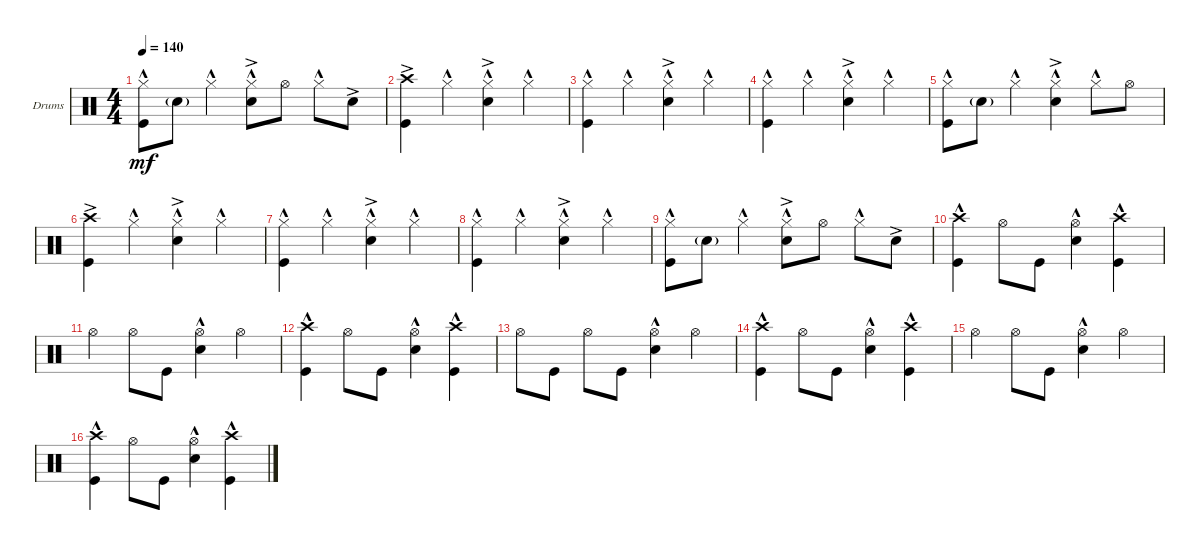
\bracketExtendMode groupsimilarinstruments
\firstSystemTrackNameOrientation horizontal
\otherSystemsTrackNameOrientation horizontal
\track ("Drumkit" "Drums") {instrument percussion}
\staff {score}
\articulation defaults
\ts (4 4)
\tempo 140
\clef neutral
\ks c
("Kick (hit)" "Hi-Hat (closed)"{hac}).8{dy mf} "Snare (hit) 2"{g}.8 "Hi-Hat (closed)"{hac}.4 ("Hi-Hat (closed)"{hac} "Snare (hit) 2"{ac}).8 "Hi-Hat (open)".8 "Hi-Hat (closed)"{hac}.8 "Snare (hit) 2"{ac}.8 |
("Kick (hit)" "Crash high (hit)"{ac}).4 "Hi-Hat (closed)"{hac}.4 ("Hi-Hat (closed)"{hac} "Snare (hit) 2"{ac}).4 "Hi-Hat (closed)"{hac}.4 |
("Kick (hit)" "Hi-Hat (closed)"{hac}).4 "Hi-Hat (closed)"{hac}.4 ("Hi-Hat (closed)"{hac} "Snare (hit) 2"{ac}).4 "Hi-Hat (closed)"{hac}.4 |
("Kick (hit)" "Hi-Hat (closed)"{hac}).4 "Hi-Hat (closed)"{hac}.4 ("Hi-Hat (closed)"{hac} "Snare (hit) 2"{ac}).4 "Hi-Hat (closed)"{hac}.4 |
("Kick (hit)" "Hi-Hat (closed)"{hac}).8 "Snare (hit) 2"{g}.8 "Hi-Hat (closed)"{hac}.4 ("Hi-Hat (closed)"{hac} "Snare (hit) 2"{ac}).4 "Hi-Hat (closed)"{hac}.8 "Hi-Hat (open)".8 |
("Kick (hit)" "Crash high (hit)"{ac}).4 "Hi-Hat (closed)"{hac}.4 ("Hi-Hat (closed)"{hac} "Snare (hit) 2"{ac}).4 "Hi-Hat (closed)"{hac}.4 |
("Kick (hit)" "Hi-Hat (closed)"{hac}).4 "Hi-Hat (closed)"{hac}.4 ("Hi-Hat (closed)"{hac} "Snare (hit) 2"{ac}).4 "Hi-Hat (closed)"{hac}.4 |
("Kick (hit)" "Hi-Hat (closed)"{hac}).4 "Hi-Hat (closed)"{hac}.4 ("Hi-Hat (closed)"{hac} "Snare (hit) 2"{ac}).4 "Hi-Hat (closed)"{hac}.4 |
("Kick (hit)" "Hi-Hat (closed)"{hac}).8 "Snare (hit) 2"{g}.8 "Hi-Hat (closed)"{hac}.4 ("Hi-Hat (closed)"{hac} "Snare (hit) 2"{ac}).8 "Hi-Hat (open)".8 "Hi-Hat (closed)"{hac}.8 "Snare (hit) 2"{ac}.8 |
("Kick (hit)" "Crash high (hit)"{hac}).4 "Hi-Hat (open)".8 "Kick (hit)".8 ("Hi-Hat (open)" "Snare (hit) 2"{hac}).4 ("Kick (hit)" "Crash high (hit)"{hac}).4 |
"Hi-Hat (open)".4 "Hi-Hat (open)".8 "Kick (hit)".8 ("Hi-Hat (open)" "Snare (hit) 2"{hac}).4 "Hi-Hat (open)".4 |
("Kick (hit)" "Crash high (hit)"{hac}).4 "Hi-Hat (open)".8 "Kick (hit)".8 ("Hi-Hat (open)" "Snare (hit) 2"{hac}).4 ("Kick (hit)" "Crash high (hit)"{hac}).4 |
"Hi-Hat (open)".8 "Kick (hit)".8 "Hi-Hat (open)".8 "Kick (hit)".8 ("Hi-Hat (open)" "Snare (hit) 2"{hac}).4 "Hi-Hat (open)".4 |
("Kick (hit)" "Crash high (hit)"{hac}).4 "Hi-Hat (open)".8 "Kick (hit)".8 ("Hi-Hat (open)" "Snare (hit) 2"{hac}).4 ("Kick (hit)" "Crash high (hit)"{hac}).4 |
"Hi-Hat (open)".4 "Hi-Hat (open)".8 "Kick (hit)".8 ("Hi-Hat (open)" "Snare (hit) 2"{hac}).4 "Hi-Hat (open)".4 |
("Kick (hit)" "Crash high (hit)"{hac}).4 "Hi-Hat (open)".8 "Kick (hit)".8 ("Hi-Hat (open)" "Snare (hit) 2"{hac}).4 ("Kick (hit)" "Crash high (hit)"{hac}).4
